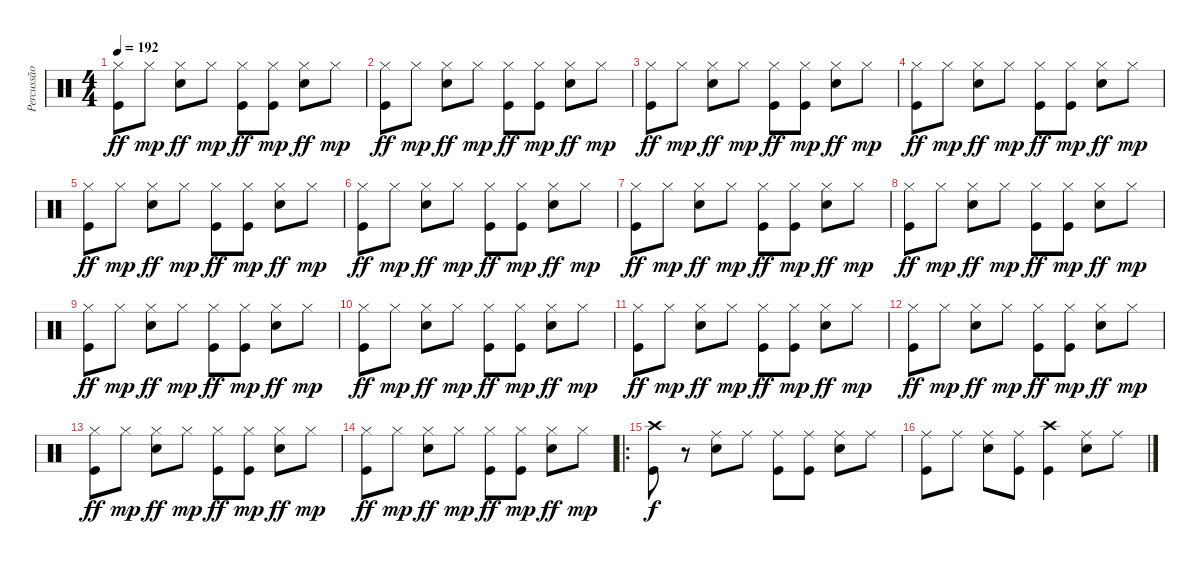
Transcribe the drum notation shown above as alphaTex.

\track ("Percussão" "Percussão") {instrument percussion}
\staff {score}
\articulation defaults
\ts (4 4)
\tempo 192
\clef neutral
\ks c
("Hi-Hat (closed)" "Kick (hit)").8{dy ff} "Hi-Hat (closed)".8{dy mp} ("Hi-Hat (closed)" "Snare (hit) 2").8{dy ff} "Hi-Hat (closed)".8{dy mp} ("Hi-Hat (closed)" "Kick (hit)").8{dy ff} ("Hi-Hat (closed)" "Kick (hit)").8{dy mp} ("Hi-Hat (closed)" "Snare (hit) 2").8{dy ff} "Hi-Hat (closed)".8{dy mp} |
("Hi-Hat (closed)" "Kick (hit)").8{dy ff} "Hi-Hat (closed)".8{dy mp} ("Hi-Hat (closed)" "Snare (hit) 2").8{dy ff} "Hi-Hat (closed)".8{dy mp} ("Hi-Hat (closed)" "Kick (hit)").8{dy ff} ("Hi-Hat (closed)" "Kick (hit)").8{dy mp} ("Hi-Hat (closed)" "Snare (hit) 2").8{dy ff} "Hi-Hat (closed)".8{dy mp} |
("Hi-Hat (closed)" "Kick (hit)").8{dy ff} "Hi-Hat (closed)".8{dy mp} ("Hi-Hat (closed)" "Snare (hit) 2").8{dy ff} "Hi-Hat (closed)".8{dy mp} ("Hi-Hat (closed)" "Kick (hit)").8{dy ff} ("Hi-Hat (closed)" "Kick (hit)").8{dy mp} ("Hi-Hat (closed)" "Snare (hit) 2").8{dy ff} "Hi-Hat (closed)".8{dy mp} |
("Hi-Hat (closed)" "Kick (hit)").8{dy ff} "Hi-Hat (closed)".8{dy mp} ("Hi-Hat (closed)" "Snare (hit) 2").8{dy ff} "Hi-Hat (closed)".8{dy mp} ("Hi-Hat (closed)" "Kick (hit)").8{dy ff} ("Hi-Hat (closed)" "Kick (hit)").8{dy mp} ("Hi-Hat (closed)" "Snare (hit) 2").8{dy ff} "Hi-Hat (closed)".8{dy mp} |
("Hi-Hat (closed)" "Kick (hit)").8{dy ff} "Hi-Hat (closed)".8{dy mp} ("Hi-Hat (closed)" "Snare (hit) 2").8{dy ff} "Hi-Hat (closed)".8{dy mp} ("Hi-Hat (closed)" "Kick (hit)").8{dy ff} ("Hi-Hat (closed)" "Kick (hit)").8{dy mp} ("Hi-Hat (closed)" "Snare (hit) 2").8{dy ff} "Hi-Hat (closed)".8{dy mp} |
("Hi-Hat (closed)" "Kick (hit)").8{dy ff} "Hi-Hat (closed)".8{dy mp} ("Hi-Hat (closed)" "Snare (hit) 2").8{dy ff} "Hi-Hat (closed)".8{dy mp} ("Hi-Hat (closed)" "Kick (hit)").8{dy ff} ("Hi-Hat (closed)" "Kick (hit)").8{dy mp} ("Hi-Hat (closed)" "Snare (hit) 2").8{dy ff} "Hi-Hat (closed)".8{dy mp} |
("Hi-Hat (closed)" "Kick (hit)").8{dy ff} "Hi-Hat (closed)".8{dy mp} ("Hi-Hat (closed)" "Snare (hit) 2").8{dy ff} "Hi-Hat (closed)".8{dy mp} ("Hi-Hat (closed)" "Kick (hit)").8{dy ff} ("Hi-Hat (closed)" "Kick (hit)").8{dy mp} ("Hi-Hat (closed)" "Snare (hit) 2").8{dy ff} "Hi-Hat (closed)".8{dy mp} |
("Hi-Hat (closed)" "Kick (hit)").8{dy ff} "Hi-Hat (closed)".8{dy mp} ("Hi-Hat (closed)" "Snare (hit) 2").8{dy ff} "Hi-Hat (closed)".8{dy mp} ("Hi-Hat (closed)" "Kick (hit)").8{dy ff} ("Hi-Hat (closed)" "Kick (hit)").8{dy mp} ("Hi-Hat (closed)" "Snare (hit) 2").8{dy ff} "Hi-Hat (closed)".8{dy mp} |
("Hi-Hat (closed)" "Kick (hit)").8{dy ff} "Hi-Hat (closed)".8{dy mp} ("Hi-Hat (closed)" "Snare (hit) 2").8{dy ff} "Hi-Hat (closed)".8{dy mp} ("Hi-Hat (closed)" "Kick (hit)").8{dy ff} ("Hi-Hat (closed)" "Kick (hit)").8{dy mp} ("Hi-Hat (closed)" "Snare (hit) 2").8{dy ff} "Hi-Hat (closed)".8{dy mp} |
("Hi-Hat (closed)" "Kick (hit)").8{dy ff} "Hi-Hat (closed)".8{dy mp} ("Hi-Hat (closed)" "Snare (hit) 2").8{dy ff} "Hi-Hat (closed)".8{dy mp} ("Hi-Hat (closed)" "Kick (hit)").8{dy ff} ("Hi-Hat (closed)" "Kick (hit)").8{dy mp} ("Hi-Hat (closed)" "Snare (hit) 2").8{dy ff} "Hi-Hat (closed)".8{dy mp} |
("Hi-Hat (closed)" "Kick (hit)").8{dy ff} "Hi-Hat (closed)".8{dy mp} ("Hi-Hat (closed)" "Snare (hit) 2").8{dy ff} "Hi-Hat (closed)".8{dy mp} ("Hi-Hat (closed)" "Kick (hit)").8{dy ff} ("Hi-Hat (closed)" "Kick (hit)").8{dy mp} ("Hi-Hat (closed)" "Snare (hit) 2").8{dy ff} "Hi-Hat (closed)".8{dy mp} |
("Hi-Hat (closed)" "Kick (hit)").8{dy ff} "Hi-Hat (closed)".8{dy mp} ("Hi-Hat (closed)" "Snare (hit) 2").8{dy ff} "Hi-Hat (closed)".8{dy mp} ("Hi-Hat (closed)" "Kick (hit)").8{dy ff} ("Hi-Hat (closed)" "Kick (hit)").8{dy mp} ("Hi-Hat (closed)" "Snare (hit) 2").8{dy ff} "Hi-Hat (closed)".8{dy mp} |
("Hi-Hat (closed)" "Kick (hit)").8{dy ff} "Hi-Hat (closed)".8{dy mp} ("Hi-Hat (closed)" "Snare (hit) 2").8{dy ff} "Hi-Hat (closed)".8{dy mp} ("Hi-Hat (closed)" "Kick (hit)").8{dy ff} ("Hi-Hat (closed)" "Kick (hit)").8{dy mp} ("Hi-Hat (closed)" "Snare (hit) 2").8{dy ff} "Hi-Hat (closed)".8{dy mp} |
("Hi-Hat (closed)" "Kick (hit)").8{dy ff} "Hi-Hat (closed)".8{dy mp} ("Hi-Hat (closed)" "Snare (hit) 2").8{dy ff} "Hi-Hat (closed)".8{dy mp} ("Hi-Hat (closed)" "Kick (hit)").8{dy ff} ("Hi-Hat (closed)" "Kick (hit)").8{dy mp} ("Hi-Hat (closed)" "Snare (hit) 2").8{dy ff} "Hi-Hat (closed)".8{dy mp} |
\ro
("Crash high (hit)" "Kick (hit)").8{dy f} r.8 ("Ride (middle)" "Snare (hit) 2").8 "Ride (middle)".8 ("Ride (middle)" "Kick (hit)").8 ("Ride (middle)" "Kick (hit)").8 ("Ride (middle)" "Snare (hit) 2").8 "Ride (middle)".8 |
("Ride (middle)" "Kick (hit)").8 "Ride (middle)".8 ("Ride (middle)" "Snare (hit) 2").8 ("Ride (middle)" "Kick (hit)").8 ("Crash high (hit)" "Kick (hit)").4 ("Ride (middle)" "Snare (hit) 2").8 "Ride (middle)".8
